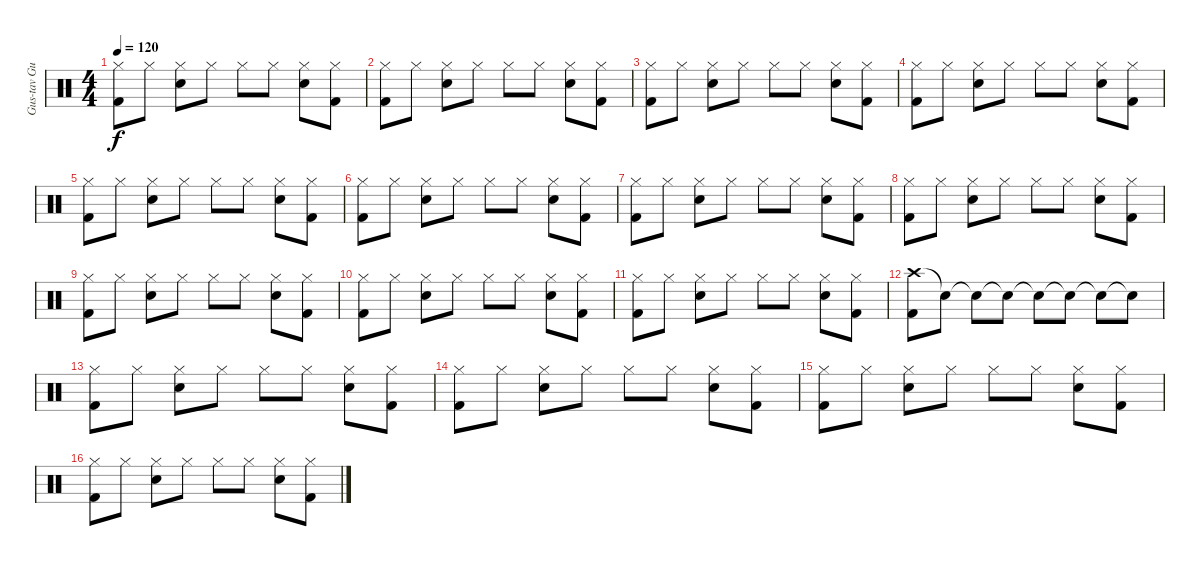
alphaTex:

\track ("Gus-tav Gus-Gus-tav" "Gus-tav Gu") {instrument percussion}
\staff {score}
\articulation defaults
\ts (4 4)
\tempo 120
\clef neutral
\ks c
("Kick (hit) 2" "Hi-Hat (closed)").8{dy f} "Hi-Hat (closed)".8 ("Hi-Hat (closed)" "Snare (hit) 2").8 "Hi-Hat (closed)".8 "Hi-Hat (closed)".8 "Hi-Hat (closed)".8 ("Snare (hit) 2" "Hi-Hat (closed)").8 ("Hi-Hat (closed)" "Kick (hit) 2").8 |
("Kick (hit) 2" "Hi-Hat (closed)").8 "Hi-Hat (closed)".8 ("Hi-Hat (closed)" "Snare (hit) 2").8 "Hi-Hat (closed)".8 "Hi-Hat (closed)".8 "Hi-Hat (closed)".8 ("Snare (hit) 2" "Hi-Hat (closed)").8 ("Hi-Hat (closed)" "Kick (hit) 2").8 |
("Kick (hit) 2" "Hi-Hat (closed)").8 "Hi-Hat (closed)".8 ("Hi-Hat (closed)" "Snare (hit) 2").8 "Hi-Hat (closed)".8 "Hi-Hat (closed)".8 "Hi-Hat (closed)".8 ("Snare (hit) 2" "Hi-Hat (closed)").8 ("Hi-Hat (closed)" "Kick (hit) 2").8 |
("Kick (hit) 2" "Hi-Hat (closed)").8 "Hi-Hat (closed)".8 ("Hi-Hat (closed)" "Snare (hit) 2").8 "Hi-Hat (closed)".8 "Hi-Hat (closed)".8 "Hi-Hat (closed)".8 ("Snare (hit) 2" "Hi-Hat (closed)").8 ("Hi-Hat (closed)" "Kick (hit) 2").8 |
("Kick (hit) 2" "Hi-Hat (closed)").8 "Hi-Hat (closed)".8 ("Hi-Hat (closed)" "Snare (hit) 2").8 "Hi-Hat (closed)".8 "Hi-Hat (closed)".8 "Hi-Hat (closed)".8 ("Snare (hit) 2" "Hi-Hat (closed)").8 ("Hi-Hat (closed)" "Kick (hit) 2").8 |
("Kick (hit) 2" "Hi-Hat (closed)").8 "Hi-Hat (closed)".8 ("Hi-Hat (closed)" "Snare (hit) 2").8 "Hi-Hat (closed)".8 "Hi-Hat (closed)".8 "Hi-Hat (closed)".8 ("Snare (hit) 2" "Hi-Hat (closed)").8 ("Hi-Hat (closed)" "Kick (hit) 2").8 |
("Kick (hit) 2" "Hi-Hat (closed)").8 "Hi-Hat (closed)".8 ("Hi-Hat (closed)" "Snare (hit) 2").8 "Hi-Hat (closed)".8 "Hi-Hat (closed)".8 "Hi-Hat (closed)".8 ("Snare (hit) 2" "Hi-Hat (closed)").8 ("Hi-Hat (closed)" "Kick (hit) 2").8 |
("Kick (hit) 2" "Hi-Hat (closed)").8 "Hi-Hat (closed)".8 ("Hi-Hat (closed)" "Snare (hit) 2").8 "Hi-Hat (closed)".8 "Hi-Hat (closed)".8 "Hi-Hat (closed)".8 ("Snare (hit) 2" "Hi-Hat (closed)").8 ("Hi-Hat (closed)" "Kick (hit) 2").8 |
("Kick (hit) 2" "Hi-Hat (closed)").8 "Hi-Hat (closed)".8 ("Hi-Hat (closed)" "Snare (hit) 2").8 "Hi-Hat (closed)".8 "Hi-Hat (closed)".8 "Hi-Hat (closed)".8 ("Snare (hit) 2" "Hi-Hat (closed)").8 ("Hi-Hat (closed)" "Kick (hit) 2").8 |
("Kick (hit) 2" "Hi-Hat (closed)").8 "Hi-Hat (closed)".8 ("Hi-Hat (closed)" "Snare (hit) 2").8 "Hi-Hat (closed)".8 "Hi-Hat (closed)".8 "Hi-Hat (closed)".8 ("Snare (hit) 2" "Hi-Hat (closed)").8 ("Hi-Hat (closed)" "Kick (hit) 2").8 |
("Kick (hit) 2" "Hi-Hat (closed)").8 "Hi-Hat (closed)".8 ("Hi-Hat (closed)" "Snare (hit) 2").8 "Hi-Hat (closed)".8 "Hi-Hat (closed)".8 "Hi-Hat (closed)".8 ("Snare (hit) 2" "Hi-Hat (closed)").8 ("Hi-Hat (closed)" "Kick (hit) 2").8 |
("Crash high (hit)" "Kick (hit) 2").8 "Snare (hit)"{t}.8 "Snare (hit)"{t}.8 "Snare (hit)"{t}.8 "Snare (hit)"{t}.8 "Snare (hit)"{t}.8 "Snare (hit)"{t}.8 "Snare (hit)"{t}.8 |
("Kick (hit) 2" "Hi-Hat (closed)").8 "Hi-Hat (closed)".8 ("Hi-Hat (closed)" "Snare (hit) 2").8 "Hi-Hat (closed)".8 "Hi-Hat (closed)".8 "Hi-Hat (closed)".8 ("Snare (hit) 2" "Hi-Hat (closed)").8 ("Hi-Hat (closed)" "Kick (hit) 2").8 |
("Kick (hit) 2" "Hi-Hat (closed)").8 "Hi-Hat (closed)".8 ("Hi-Hat (closed)" "Snare (hit) 2").8 "Hi-Hat (closed)".8 "Hi-Hat (closed)".8 "Hi-Hat (closed)".8 ("Snare (hit) 2" "Hi-Hat (closed)").8 ("Hi-Hat (closed)" "Kick (hit) 2").8 |
("Kick (hit) 2" "Hi-Hat (closed)").8 "Hi-Hat (closed)".8 ("Hi-Hat (closed)" "Snare (hit) 2").8 "Hi-Hat (closed)".8 "Hi-Hat (closed)".8 "Hi-Hat (closed)".8 ("Snare (hit) 2" "Hi-Hat (closed)").8 ("Hi-Hat (closed)" "Kick (hit) 2").8 |
("Kick (hit) 2" "Hi-Hat (closed)").8 "Hi-Hat (closed)".8 ("Hi-Hat (closed)" "Snare (hit) 2").8 "Hi-Hat (closed)".8 "Hi-Hat (closed)".8 "Hi-Hat (closed)".8 ("Snare (hit) 2" "Hi-Hat (closed)").8 ("Hi-Hat (closed)" "Kick (hit) 2").8
